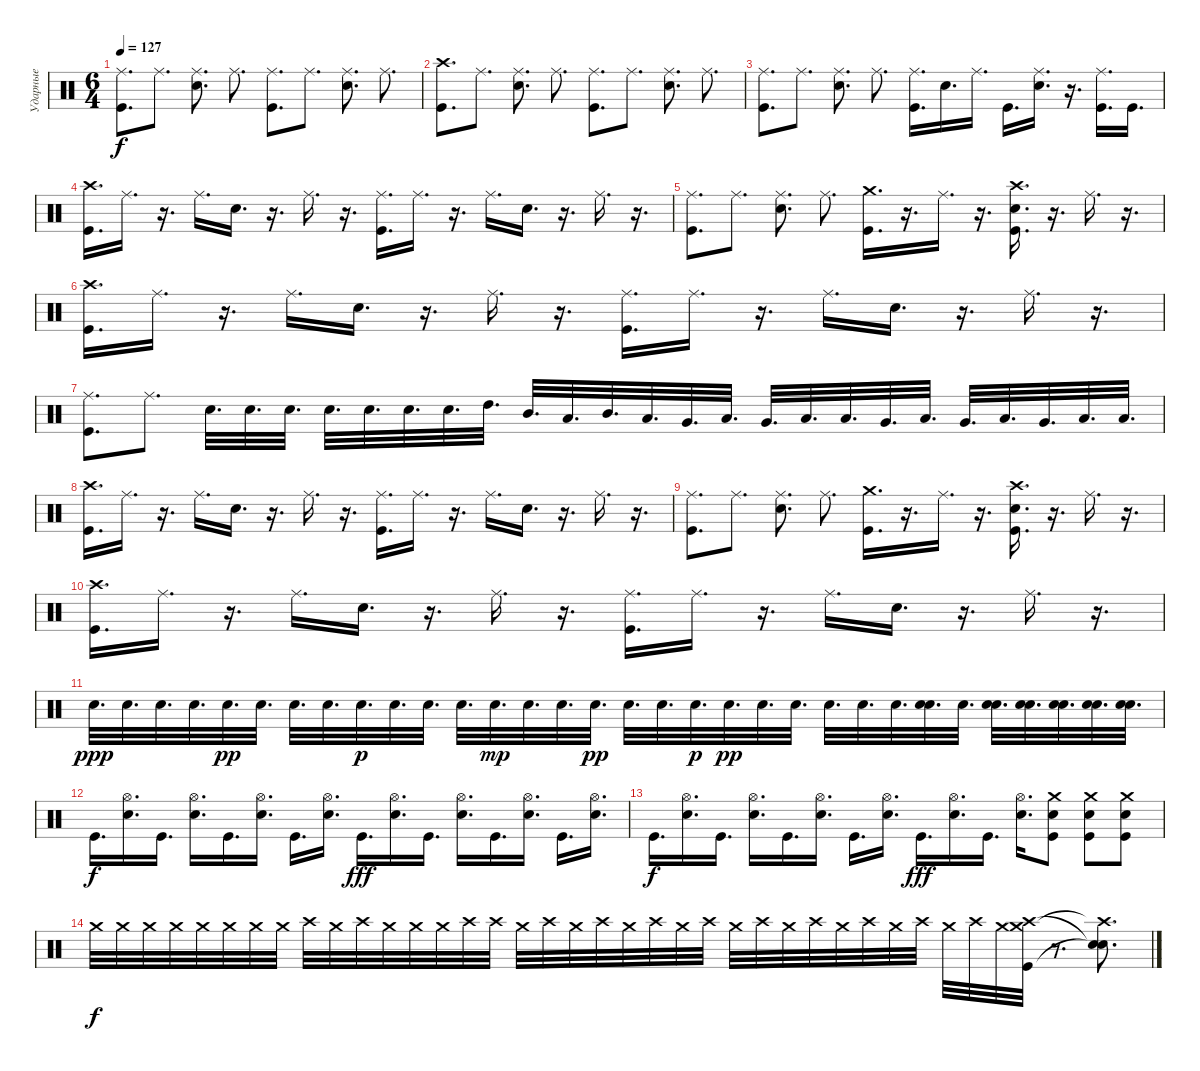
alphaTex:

\track ("Ударные" "Ударные") {instrument percussion}
\staff {score}
\articulation defaults
\ts (6 4)
\tempo 127
\clef neutral
\ks c
("Ride (middle)" "Kick (hit)").8{d dy f} "Ride (middle)".8{d} ("Ride (middle)" "Electric Snare (hit)").8{d} "Ride (middle)".8{d} ("Ride (middle)" "Kick (hit)").8{d} "Ride (middle)".8{d} ("Ride (middle)" "Electric Snare (hit)").8{d} "Ride (middle)".8{d} |
("Crash high (hit)" "Kick (hit)").8{d} "Ride (middle)".8{d} ("Ride (middle)" "Electric Snare (hit)").8{d} "Ride (middle)".8{d} ("Ride (middle)" "Kick (hit)").8{d} "Ride (middle)".8{d} ("Ride (middle)" "Electric Snare (hit)").8{d} "Ride (middle)".8{d} |
("Ride (middle)" "Kick (hit)").8{d} "Ride (middle)".8{d} ("Ride (middle)" "Electric Snare (hit)").8{d} "Ride (middle)".8{d} ("Ride (middle)" "Kick (hit)").16{d} "Electric Snare (hit)".16{d} "Ride (middle)".16{d} "Kick (hit)".16{d} ("Ride (middle)" "Electric Snare (hit)").16{d} r.16{d} ("Ride (middle)" "Kick (hit)").16{d} "Kick (hit)".16{d} |
("Crash high (hit)" "Kick (hit)").16{d} "Ride (middle)".16{d} r.16{d} "Ride (middle)".16{d} "Electric Snare (hit)".16{d} r.16{d} "Ride (middle)".16{d} r.16{d} ("Ride (middle)" "Kick (hit)").16{d} "Ride (middle)".16{d} r.16{d} "Ride (middle)".16{d} "Electric Snare (hit)".16{d} r.16{d} "Ride (middle)".16{d} r.16{d} |
("Ride (middle)" "Kick (hit)").8{d} "Ride (middle)".8{d} ("Ride (middle)" "Electric Snare (hit)").8{d} "Ride (middle)".8{d} ("Crash medium (hit)" "Kick (hit)").16{d} r.16{d} "Ride (middle)".16{d} r.16{d} ("Crash high (hit)" "Electric Snare (hit)" "Kick (hit)").16{d} r.16{d} "Ride (middle)".16{d} r.16{d} |
("Crash high (hit)" "Kick (hit)").16{d} "Ride (middle)".16{d} r.16{d} "Ride (middle)".16{d} "Electric Snare (hit)".16{d} r.16{d} "Ride (middle)".16{d} r.16{d} ("Ride (middle)" "Kick (hit)").16{d} "Ride (middle)".16{d} r.16{d} "Ride (middle)".16{d} "Electric Snare (hit)".16{d} r.16{d} "Ride (middle)".16{d} r.16{d} |
("Ride (middle)" "Kick (hit)").8{d} "Ride (middle)".8{d} "Electric Snare (hit)".32{d} "Electric Snare (hit)".32{d} "Electric Snare (hit)".32{d} "Electric Snare (hit)".32{d} "Electric Snare (hit)".32{d} "Electric Snare (hit)".32{d} "Electric Snare (hit)".32{d} "High Tom (hit)".32{d} "Mid Tom (hit)".32{d} "Low Tom (hit)".32{d} "Mid Tom (hit)".32{d} "Low Tom (hit)".32{d} "Very Low Tom (hit)".32{d} "Low Tom (hit)".32{d} "Very Low Tom (hit)".32{d} "Low Floor Tom (hit)".32{d} "Low Tom (hit)".32{d} "Very Low Tom (hit)".32{d} "Low Floor Tom (hit)".32{d} "Very Low Tom (hit)".32{d} "Low Tom (hit)".32{d} "Very Low Tom (hit)".32{d} "Low Floor Tom (hit)".32{d} "Low Tom (hit)".32{d} |
("Crash high (hit)" "Kick (hit)").16{d} "Ride (middle)".16{d} r.16{d} "Ride (middle)".16{d} "Electric Snare (hit)".16{d} r.16{d} "Ride (middle)".16{d} r.16{d} ("Ride (middle)" "Kick (hit)").16{d} "Ride (middle)".16{d} r.16{d} "Ride (middle)".16{d} "Electric Snare (hit)".16{d} r.16{d} "Ride (middle)".16{d} r.16{d} |
("Ride (middle)" "Kick (hit)").8{d} "Ride (middle)".8{d} ("Ride (middle)" "Electric Snare (hit)").8{d} "Ride (middle)".8{d} ("Crash medium (hit)" "Kick (hit)").16{d} r.16{d} "Ride (middle)".16{d} r.16{d} ("Crash high (hit)" "Electric Snare (hit)" "Kick (hit)").16{d} r.16{d} "Ride (middle)".16{d} r.16{d} |
("Crash high (hit)" "Kick (hit)").16{d} "Ride (middle)".16{d} r.16{d} "Ride (middle)".16{d} "Electric Snare (hit)".16{d} r.16{d} "Ride (middle)".16{d} r.16{d} ("Ride (middle)" "Kick (hit)").16{d} "Ride (middle)".16{d} r.16{d} "Ride (middle)".16{d} "Electric Snare (hit)".16{d} r.16{d} "Ride (middle)".16{d} r.16{d} |
"Electric Snare (hit)".32{d dy ppp} "Electric Snare (hit)".32{d} "Electric Snare (hit)".32{d} "Electric Snare (hit)".32{d} "Electric Snare (hit)".32{d dy pp} "Electric Snare (hit)".32{d} "Electric Snare (hit)".32{d} "Electric Snare (hit)".32{d} "Electric Snare (hit)".32{d dy p} "Electric Snare (hit)".32{d} "Electric Snare (hit)".32{d} "Electric Snare (hit)".32{d} "Electric Snare (hit)".32{d dy mp} "Electric Snare (hit)".32{d} "Electric Snare (hit)".32{d} "Electric Snare (hit)".32{d dy pp} "Electric Snare (hit)".32{d} "Electric Snare (hit)".32{d} "Electric Snare (hit)".32{d dy p} "Electric Snare (hit)".32{d dy pp} "Electric Snare (hit)".32{d} "Electric Snare (hit)".32{d} "Electric Snare (hit)".32{d} "Electric Snare (hit)".32{d} "Electric Snare (hit)".32{d} ("Electric Snare (hit)" "Electric Snare (hit)").32{d} "Electric Snare (hit)".32{d} ("Electric Snare (hit)" "Electric Snare (hit)").32{d} ("Electric Snare (hit)" "Electric Snare (hit)").32{d} ("Electric Snare (hit)" "Electric Snare (hit)").32{d} ("Electric Snare (hit)" "Electric Snare (hit)").32{d} ("Electric Snare (hit)" "Electric Snare (hit)").32{d} |
"Kick (hit)".16{d dy f} ("Hi-Hat (open)" "Electric Snare (hit)").16{d} "Kick (hit)".16{d} ("Hi-Hat (open)" "Electric Snare (hit)").16{d} "Kick (hit)".16{d} ("Hi-Hat (open)" "Electric Snare (hit)").16{d} "Kick (hit)".16{d} ("Hi-Hat (open)" "Electric Snare (hit)").16{d} "Kick (hit)".16{d dy fff} ("Hi-Hat (open)" "Electric Snare (hit)").16{d} "Kick (hit)".16{d} ("Hi-Hat (open)" "Electric Snare (hit)").16{d} "Kick (hit)".16{d} ("Hi-Hat (open)" "Electric Snare (hit)").16{d} "Kick (hit)".16{d} ("Hi-Hat (open)" "Electric Snare (hit)").16{d} |
"Kick (hit)".16{d dy f} ("Hi-Hat (open)" "Electric Snare (hit)").16{d} "Kick (hit)".16{d} ("Hi-Hat (open)" "Electric Snare (hit)").16{d} "Kick (hit)".16{d} ("Hi-Hat (open)" "Electric Snare (hit)").16{d} "Kick (hit)".16{d} ("Hi-Hat (open)" "Electric Snare (hit)").16{d} "Kick (hit)".16{d dy fff} ("Hi-Hat (open)" "Electric Snare (hit)").16{d} "Kick (hit)".16{d} ("Hi-Hat (open)" "Electric Snare (hit)").16{d} ("Crash medium (hit)" "Electric Snare (hit)" "Kick (hit)").8 ("Crash medium (hit)" "Electric Snare (hit)" "Kick (hit)").8 ("Crash medium (hit)" "Electric Snare (hit)" "Kick (hit)").8 |
"Crash medium (hit)".32{dy f} "Crash medium (hit)".32 "Crash medium (hit)".32 "Crash medium (hit)".32 "Crash medium (hit)".32 "Crash medium (hit)".32 "Crash medium (hit)".32 "Crash medium (hit)".32 "Crash high (hit)".32 "Crash medium (hit)".32 "Crash high (hit)".32 "Crash medium (hit)".32 "Crash medium (hit)".32 "Crash medium (hit)".32 "Crash high (hit)".32 "Crash high (hit)".32 "Crash medium (hit)".32 "Crash high (hit)".32 "Crash medium (hit)".32 "Crash high (hit)".32 "Crash medium (hit)".32 "Crash high (hit)".32 "Crash medium (hit)".32 "Crash high (hit)".32 "Crash medium (hit)".32 "Crash high (hit)".32 "Crash medium (hit)".32 "Crash high (hit)".32 "Crash medium (hit)".32 "Crash high (hit)".32 "Crash medium (hit)".32 "Crash high (hit)".32 "Crash medium (hit)".32 "Crash high (hit)".32 "Crash medium (hit)".32 ("Crash high (hit)" "Crash medium (hit)" "Kick (hit)").32 r.8{d} ("Snare (hit)"{t} "Crash high (hit)"{t} "Snare (hit)"{t}).8{d}
